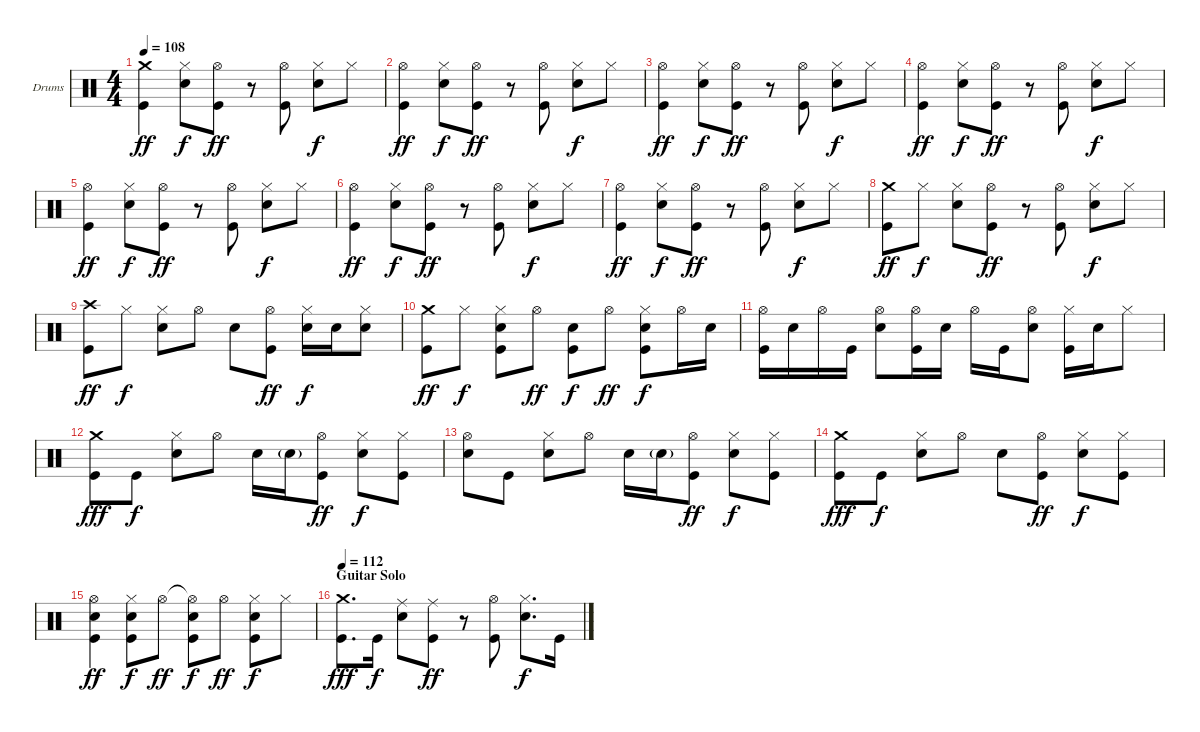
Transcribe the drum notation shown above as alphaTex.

\bracketExtendMode groupsimilarinstruments
\firstSystemTrackNameOrientation horizontal
\otherSystemsTrackNameOrientation horizontal
\track ("Drumkit" "Drums") {instrument percussion}
\staff {score}
\articulation defaults
\ts (4 4)
\tempo 108
\clef neutral
\ks c
("Crash medium (hit)" "Kick (hit)").4{dy ff} ("Hi-Hat (closed)" "Snare (hit) 2").8{dy f} ("Hi-Hat (open)" "Kick (hit)").8{dy ff} r.8 ("Hi-Hat (open)" "Kick (hit)").8 ("Hi-Hat (closed)" "Snare (hit) 2").8{dy f} "Hi-Hat (closed)".8 |
("Hi-Hat (open)" "Kick (hit)").4{dy ff} ("Hi-Hat (closed)" "Snare (hit) 2").8{dy f} ("Hi-Hat (open)" "Kick (hit)").8{dy ff} r.8 ("Hi-Hat (open)" "Kick (hit)").8 ("Hi-Hat (closed)" "Snare (hit) 2").8{dy f} "Hi-Hat (closed)".8 |
("Hi-Hat (open)" "Kick (hit)").4{dy ff} ("Hi-Hat (closed)" "Snare (hit) 2").8{dy f} ("Hi-Hat (open)" "Kick (hit)").8{dy ff} r.8 ("Hi-Hat (open)" "Kick (hit)").8 ("Hi-Hat (closed)" "Snare (hit) 2").8{dy f} "Hi-Hat (closed)".8 |
("Hi-Hat (open)" "Kick (hit)").4{dy ff} ("Hi-Hat (closed)" "Snare (hit) 2").8{dy f} ("Hi-Hat (open)" "Kick (hit)").8{dy ff} r.8 ("Hi-Hat (open)" "Kick (hit)").8 ("Hi-Hat (closed)" "Snare (hit) 2").8{dy f} "Hi-Hat (closed)".8 |
("Hi-Hat (open)" "Kick (hit)").4{dy ff} ("Hi-Hat (closed)" "Snare (hit) 2").8{dy f} ("Hi-Hat (open)" "Kick (hit)").8{dy ff} r.8 ("Hi-Hat (open)" "Kick (hit)").8 ("Hi-Hat (closed)" "Snare (hit) 2").8{dy f} "Hi-Hat (closed)".8 |
("Hi-Hat (open)" "Kick (hit)").4{dy ff} ("Hi-Hat (closed)" "Snare (hit) 2").8{dy f} ("Hi-Hat (open)" "Kick (hit)").8{dy ff} r.8 ("Hi-Hat (open)" "Kick (hit)").8 ("Hi-Hat (closed)" "Snare (hit) 2").8{dy f} "Hi-Hat (closed)".8 |
("Hi-Hat (open)" "Kick (hit)").4{dy ff} ("Hi-Hat (closed)" "Snare (hit) 2").8{dy f} ("Hi-Hat (open)" "Kick (hit)").8{dy ff} r.8 ("Hi-Hat (open)" "Kick (hit)").8 ("Hi-Hat (closed)" "Snare (hit) 2").8{dy f} "Hi-Hat (closed)".8 |
("Crash medium (hit)" "Kick (hit)").8{dy ff} "Hi-Hat (closed)".8{dy f} ("Hi-Hat (closed)" "Snare (hit) 2").8 ("Hi-Hat (open)" "Kick (hit)").8{dy ff} r.8 ("Hi-Hat (open)" "Kick (hit)").8 ("Hi-Hat (closed)" "Snare (hit) 2").8{dy f} "Hi-Hat (closed)".8 |
("Crash high (hit)" "Kick (hit)").8{dy ff} "Hi-Hat (closed)".8{dy f} ("Hi-Hat (closed)" "Snare (hit) 2").8 "Hi-Hat (open)".8 "Snare (hit) 2".8 ("Hi-Hat (open)" "Kick (hit)").8{dy ff} ("Hi-Hat (closed)" "Snare (hit) 2").16{dy f} "Snare (hit) 2".16 ("Hi-Hat (closed)" "Snare (hit) 2").8 |
("Crash medium (hit)" "Kick (hit)").8{dy ff} "Hi-Hat (closed)".8{dy f} ("Hi-Hat (closed)" "Snare (hit) 2" "Kick (hit)").8 "Hi-Hat (open)".8{dy ff} ("Snare (hit) 2" "Kick (hit)").8{dy f} "Hi-Hat (open)".8{dy ff} ("Hi-Hat (closed)" "Snare (hit) 2" "Kick (hit)").8{dy f} "Hi-Hat (open)".16 "Snare (hit) 2".16 |
("Hi-Hat (open)" "Kick (hit)").16 "Snare (hit) 2".16 "Hi-Hat (open)".16 "Kick (hit)".16 ("Hi-Hat (open)" "Snare (hit) 2").8 ("Hi-Hat (open)" "Kick (hit)").16 "Snare (hit) 2".16 "Hi-Hat (open)".16 "Kick (hit)".16 ("Hi-Hat (open)" "Snare (hit) 2").8 ("Hi-Hat (closed)" "Kick (hit)").16 "Snare (hit) 2".16 "Hi-Hat (closed)".8 |
("Crash medium (hit)" "Kick (hit)").8{dy fff} "Kick (hit)".8{dy f} ("Hi-Hat (closed)" "Snare (hit) 2").8 "Hi-Hat (open)".8 "Snare (hit) 2".16 "Snare (hit) 2"{g}.16 ("Hi-Hat (open)" "Kick (hit)").8{dy ff} ("Hi-Hat (closed)" "Snare (hit) 2").8{dy f} ("Hi-Hat (closed)" "Kick (hit)").8 |
("Hi-Hat (open)" "Snare (hit) 2").8 "Kick (hit)".8 ("Hi-Hat (closed)" "Snare (hit) 2").8 "Hi-Hat (open)".8 "Snare (hit) 2".16 "Snare (hit) 2"{g}.16 ("Hi-Hat (open)" "Kick (hit)").8{dy ff} ("Hi-Hat (closed)" "Snare (hit) 2").8{dy f} ("Hi-Hat (closed)" "Kick (hit)").8 |
("Crash medium (hit)" "Kick (hit)").8{dy fff} "Kick (hit)".8{dy f} ("Hi-Hat (closed)" "Snare (hit) 2").8 "Hi-Hat (open)".8 "Snare (hit) 2".8 ("Hi-Hat (open)" "Kick (hit)").8{dy ff} ("Hi-Hat (closed)" "Snare (hit) 2").8{dy f} ("Hi-Hat (closed)" "Kick (hit)").8 |
("Hi-Hat (open)" "Snare (hit) 2" "Kick (hit)").4{dy ff} ("Hi-Hat (closed)" "Snare (hit) 2" "Kick (hit)").8{dy f} "Hi-Hat (open)".8{dy ff} ("Hi-Hat (open)"{t} "Snare (hit) 2" "Kick (hit)").8{dy f} "Hi-Hat (open)".8{dy ff} ("Hi-Hat (closed)" "Snare (hit) 2" "Kick (hit)").8{dy f} "Hi-Hat (closed)".8 |
\section ("" "Guitar Solo")
\tempo 112
("Crash medium (hit)" "Kick (hit)").8{d dy fff} "Kick (hit)".16{dy f} ("Ride (middle)" "Snare (hit) 2").8 ("Ride (middle)" "Kick (hit)").8{dy ff} r.8 ("Hi-Hat (open)" "Kick (hit)").8 ("Hi-Hat (closed)" "Snare (hit) 2").8{d dy f} "Kick (hit)".16
